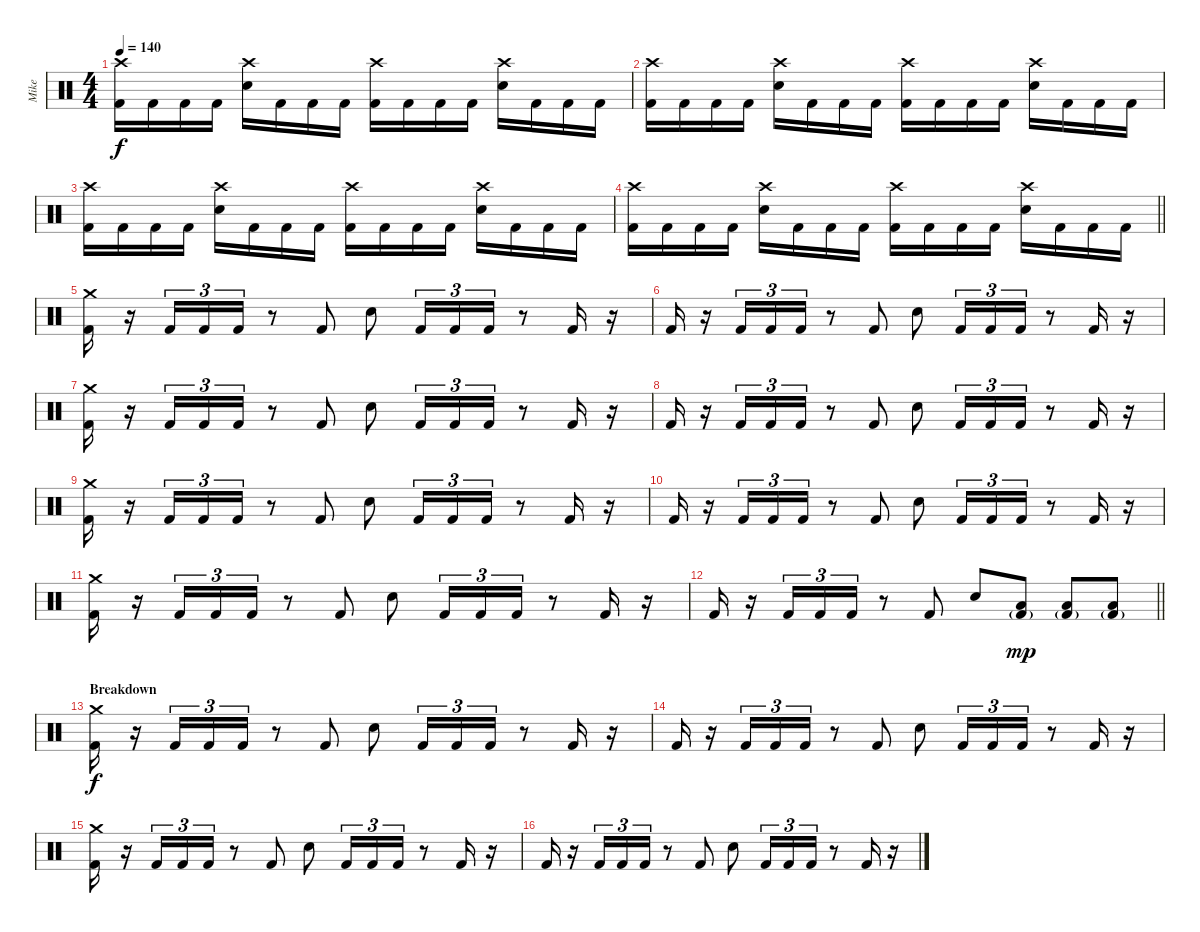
\track ("Mike" "Mike") {instrument percussion}
\staff {score}
\articulation defaults
\ts (4 4)
\tempo 140
\clef neutral
\ks c
("Crash high (hit)" "Kick (hit) 2").16{dy f} "Kick (hit) 2".16 "Kick (hit) 2".16 "Kick (hit) 2".16 ("Crash high (hit)" "Electric Snare (hit)").16 "Kick (hit) 2".16 "Kick (hit) 2".16 "Kick (hit) 2".16 ("Crash high (hit)" "Kick (hit) 2").16 "Kick (hit) 2".16 "Kick (hit) 2".16 "Kick (hit) 2".16 ("Crash high (hit)" "Electric Snare (hit)").16 "Kick (hit) 2".16 "Kick (hit) 2".16 "Kick (hit) 2".16 |
("Crash high (hit)" "Kick (hit) 2").16 "Kick (hit) 2".16 "Kick (hit) 2".16 "Kick (hit) 2".16 ("Crash high (hit)" "Electric Snare (hit)").16 "Kick (hit) 2".16 "Kick (hit) 2".16 "Kick (hit) 2".16 ("Crash high (hit)" "Kick (hit) 2").16 "Kick (hit) 2".16 "Kick (hit) 2".16 "Kick (hit) 2".16 ("Crash high (hit)" "Electric Snare (hit)").16 "Kick (hit) 2".16 "Kick (hit) 2".16 "Kick (hit) 2".16 |
("Crash high (hit)" "Kick (hit) 2").16 "Kick (hit) 2".16 "Kick (hit) 2".16 "Kick (hit) 2".16 ("Crash high (hit)" "Electric Snare (hit)").16 "Kick (hit) 2".16 "Kick (hit) 2".16 "Kick (hit) 2".16 ("Crash high (hit)" "Kick (hit) 2").16 "Kick (hit) 2".16 "Kick (hit) 2".16 "Kick (hit) 2".16 ("Crash high (hit)" "Electric Snare (hit)").16 "Kick (hit) 2".16 "Kick (hit) 2".16 "Kick (hit) 2".16 |
\barLineRight lightlight
("Crash high (hit)" "Kick (hit) 2").16 "Kick (hit) 2".16 "Kick (hit) 2".16 "Kick (hit) 2".16 ("Crash high (hit)" "Electric Snare (hit)").16 "Kick (hit) 2".16 "Kick (hit) 2".16 "Kick (hit) 2".16 ("Crash high (hit)" "Kick (hit) 2").16 "Kick (hit) 2".16 "Kick (hit) 2".16 "Kick (hit) 2".16 ("Crash high (hit)" "Electric Snare (hit)").16 "Kick (hit) 2".16 "Kick (hit) 2".16 "Kick (hit) 2".16 |
("Crash medium (hit)" "Kick (hit) 2").16 r.16 "Kick (hit) 2".16{tu (3 2)} "Kick (hit) 2".16{tu (3 2)} "Kick (hit) 2".16{tu (3 2)} r.8 "Kick (hit) 2".8 "Electric Snare (hit)".8 "Kick (hit) 2".16{tu (3 2)} "Kick (hit) 2".16{tu (3 2)} "Kick (hit) 2".16{tu (3 2)} r.8 "Kick (hit) 2".16 r.16 |
"Kick (hit) 2".16 r.16 "Kick (hit) 2".16{tu (3 2)} "Kick (hit) 2".16{tu (3 2)} "Kick (hit) 2".16{tu (3 2)} r.8 "Kick (hit) 2".8 "Electric Snare (hit)".8 "Kick (hit) 2".16{tu (3 2)} "Kick (hit) 2".16{tu (3 2)} "Kick (hit) 2".16{tu (3 2)} r.8 "Kick (hit) 2".16 r.16 |
("Crash medium (hit)" "Kick (hit) 2").16 r.16 "Kick (hit) 2".16{tu (3 2)} "Kick (hit) 2".16{tu (3 2)} "Kick (hit) 2".16{tu (3 2)} r.8 "Kick (hit) 2".8 "Electric Snare (hit)".8 "Kick (hit) 2".16{tu (3 2)} "Kick (hit) 2".16{tu (3 2)} "Kick (hit) 2".16{tu (3 2)} r.8 "Kick (hit) 2".16 r.16 |
"Kick (hit) 2".16 r.16 "Kick (hit) 2".16{tu (3 2)} "Kick (hit) 2".16{tu (3 2)} "Kick (hit) 2".16{tu (3 2)} r.8 "Kick (hit) 2".8 "Electric Snare (hit)".8 "Kick (hit) 2".16{tu (3 2)} "Kick (hit) 2".16{tu (3 2)} "Kick (hit) 2".16{tu (3 2)} r.8 "Kick (hit) 2".16 r.16 |
("Crash medium (hit)" "Kick (hit) 2").16 r.16 "Kick (hit) 2".16{tu (3 2)} "Kick (hit) 2".16{tu (3 2)} "Kick (hit) 2".16{tu (3 2)} r.8 "Kick (hit) 2".8 "Electric Snare (hit)".8 "Kick (hit) 2".16{tu (3 2)} "Kick (hit) 2".16{tu (3 2)} "Kick (hit) 2".16{tu (3 2)} r.8 "Kick (hit) 2".16 r.16 |
"Kick (hit) 2".16 r.16 "Kick (hit) 2".16{tu (3 2)} "Kick (hit) 2".16{tu (3 2)} "Kick (hit) 2".16{tu (3 2)} r.8 "Kick (hit) 2".8 "Electric Snare (hit)".8 "Kick (hit) 2".16{tu (3 2)} "Kick (hit) 2".16{tu (3 2)} "Kick (hit) 2".16{tu (3 2)} r.8 "Kick (hit) 2".16 r.16 |
("Crash medium (hit)" "Kick (hit) 2").16 r.16 "Kick (hit) 2".16{tu (3 2)} "Kick (hit) 2".16{tu (3 2)} "Kick (hit) 2".16{tu (3 2)} r.8 "Kick (hit) 2".8 "Electric Snare (hit)".8 "Kick (hit) 2".16{tu (3 2)} "Kick (hit) 2".16{tu (3 2)} "Kick (hit) 2".16{tu (3 2)} r.8 "Kick (hit) 2".16 r.16 |
\barLineRight lightlight "Kick (hit) 2".16
r.16 "Kick (hit) 2".16{tu (3 2)} "Kick (hit) 2".16{tu (3 2)} "Kick (hit) 2".16{tu (3 2)} r.8 "Kick (hit) 2".8 "Electric Snare (hit)".8 ("Low Floor Tom (hit)" "Kick (hit) 2"{g}).8{dy mp} ("Low Floor Tom (hit)" "Kick (hit) 2"{g}).8 ("Low Floor Tom (hit)" "Kick (hit) 2"{g}).8 |
\section ("" "Breakdown")
("Crash medium (hit)" "Kick (hit) 2").16{dy f} r.16 "Kick (hit) 2".16{tu (3 2)} "Kick (hit) 2".16{tu (3 2)} "Kick (hit) 2".16{tu (3 2)} r.8 "Kick (hit) 2".8 "Electric Snare (hit)".8 "Kick (hit) 2".16{tu (3 2)} "Kick (hit) 2".16{tu (3 2)} "Kick (hit) 2".16{tu (3 2)} r.8 "Kick (hit) 2".16 r.16 |
"Kick (hit) 2".16 r.16 "Kick (hit) 2".16{tu (3 2)} "Kick (hit) 2".16{tu (3 2)} "Kick (hit) 2".16{tu (3 2)} r.8 "Kick (hit) 2".8 "Electric Snare (hit)".8 "Kick (hit) 2".16{tu (3 2)} "Kick (hit) 2".16{tu (3 2)} "Kick (hit) 2".16{tu (3 2)} r.8 "Kick (hit) 2".16 r.16 |
("Crash medium (hit)" "Kick (hit) 2").16 r.16 "Kick (hit) 2".16{tu (3 2)} "Kick (hit) 2".16{tu (3 2)} "Kick (hit) 2".16{tu (3 2)} r.8 "Kick (hit) 2".8 "Electric Snare (hit)".8 "Kick (hit) 2".16{tu (3 2)} "Kick (hit) 2".16{tu (3 2)} "Kick (hit) 2".16{tu (3 2)} r.8 "Kick (hit) 2".16 r.16 |
"Kick (hit) 2".16 r.16 "Kick (hit) 2".16{tu (3 2)} "Kick (hit) 2".16{tu (3 2)} "Kick (hit) 2".16{tu (3 2)} r.8 "Kick (hit) 2".8 "Electric Snare (hit)".8 "Kick (hit) 2".16{tu (3 2)} "Kick (hit) 2".16{tu (3 2)} "Kick (hit) 2".16{tu (3 2)} r.8 "Kick (hit) 2".16 r.16
